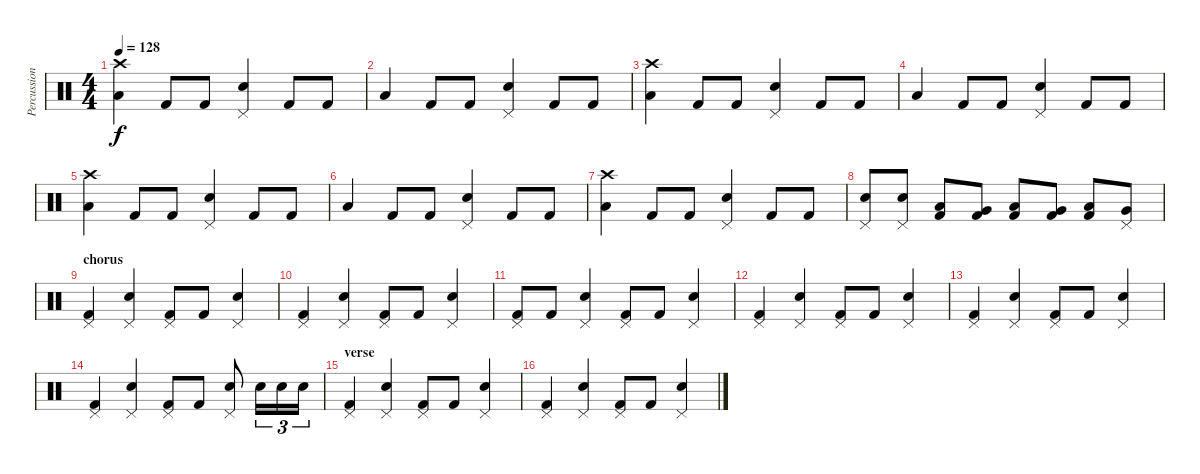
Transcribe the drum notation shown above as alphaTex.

\track ("Percussion" "Percussion") {instrument percussion}
\staff {score}
\articulation defaults
\ts (4 4)
\tempo 128
\clef neutral
\ks c
("Crash high (hit)" "Low Tom (hit)").4{dy f} "Kick (hit) 2".8 "Kick (hit) 2".8 ("Pedal Hi-Hat (hit)" "Electric Snare (hit)").4 "Kick (hit) 2".8 "Kick (hit) 2".8 |
"Low Tom (hit)".4 "Kick (hit) 2".8 "Kick (hit) 2".8 ("Pedal Hi-Hat (hit)" "Electric Snare (hit)").4 "Kick (hit) 2".8 "Kick (hit) 2".8 |
("Crash high (hit)" "Low Tom (hit)").4 "Kick (hit) 2".8 "Kick (hit) 2".8 ("Pedal Hi-Hat (hit)" "Electric Snare (hit)").4 "Kick (hit) 2".8 "Kick (hit) 2".8 |
"Low Tom (hit)".4 "Kick (hit) 2".8 "Kick (hit) 2".8 ("Pedal Hi-Hat (hit)" "Electric Snare (hit)").4 "Kick (hit) 2".8 "Kick (hit) 2".8 |
("Crash high (hit)" "Low Tom (hit)").4 "Kick (hit) 2".8 "Kick (hit) 2".8 ("Pedal Hi-Hat (hit)" "Electric Snare (hit)").4 "Kick (hit) 2".8 "Kick (hit) 2".8 |
"Low Tom (hit)".4 "Kick (hit) 2".8 "Kick (hit) 2".8 ("Pedal Hi-Hat (hit)" "Electric Snare (hit)").4 "Kick (hit) 2".8 "Kick (hit) 2".8 |
("Crash high (hit)" "Low Tom (hit)").4 "Kick (hit) 2".8 "Kick (hit) 2".8 ("Pedal Hi-Hat (hit)" "Electric Snare (hit)").4 "Kick (hit) 2".8 "Kick (hit) 2".8 |
("Pedal Hi-Hat (hit)" "Electric Snare (hit)").8 ("Pedal Hi-Hat (hit)" "Electric Snare (hit)").8 ("Low Tom (hit)" "Kick (hit) 2").8 ("Very Low Tom (hit)" "Kick (hit) 2").8 ("Low Floor Tom (hit)" "Kick (hit) 2").8 ("Very Low Tom (hit)" "Kick (hit) 2").8 ("Low Tom (hit)" "Kick (hit) 2").8 ("Pedal Hi-Hat (hit)" "Very Low Tom (hit)").8 |
\section ("" "chorus")
("Pedal Hi-Hat (hit)" "Kick (hit) 2").4 ("Pedal Hi-Hat (hit)" "Electric Snare (hit)").4 ("Pedal Hi-Hat (hit)" "Kick (hit) 2").8 "Kick (hit) 2".8 ("Pedal Hi-Hat (hit)" "Electric Snare (hit)").4 |
("Pedal Hi-Hat (hit)" "Kick (hit) 2").4 ("Pedal Hi-Hat (hit)" "Electric Snare (hit)").4 ("Pedal Hi-Hat (hit)" "Kick (hit) 2").8 "Kick (hit) 2".8 ("Pedal Hi-Hat (hit)" "Electric Snare (hit)").4 |
("Pedal Hi-Hat (hit)" "Kick (hit) 2").8 "Kick (hit) 2".8 ("Pedal Hi-Hat (hit)" "Electric Snare (hit)").4 ("Pedal Hi-Hat (hit)" "Kick (hit) 2").8 "Kick (hit) 2".8 ("Pedal Hi-Hat (hit)" "Electric Snare (hit)").4 |
("Pedal Hi-Hat (hit)" "Kick (hit) 2").4 ("Pedal Hi-Hat (hit)" "Electric Snare (hit)").4 ("Pedal Hi-Hat (hit)" "Kick (hit) 2").8 "Kick (hit) 2".8 ("Pedal Hi-Hat (hit)" "Electric Snare (hit)").4 |
("Pedal Hi-Hat (hit)" "Kick (hit) 2").4 ("Pedal Hi-Hat (hit)" "Electric Snare (hit)").4 ("Pedal Hi-Hat (hit)" "Kick (hit) 2").8 "Kick (hit) 2".8 ("Pedal Hi-Hat (hit)" "Electric Snare (hit)").4 |
("Pedal Hi-Hat (hit)" "Kick (hit) 2").4 ("Pedal Hi-Hat (hit)" "Electric Snare (hit)").4 ("Pedal Hi-Hat (hit)" "Kick (hit) 2").8 "Kick (hit) 2".8 ("Pedal Hi-Hat (hit)" "Electric Snare (hit)").8 "Electric Snare (hit)".16{tu (3 2)} "Electric Snare (hit)".16{tu (3 2)} "Electric Snare (hit)".16{tu (3 2)} |
\section ("" "verse")
("Pedal Hi-Hat (hit)" "Kick (hit) 2").4 ("Pedal Hi-Hat (hit)" "Electric Snare (hit)").4 ("Pedal Hi-Hat (hit)" "Kick (hit) 2").8 "Kick (hit) 2".8 ("Pedal Hi-Hat (hit)" "Electric Snare (hit)").4 |
("Pedal Hi-Hat (hit)" "Kick (hit) 2").4 ("Pedal Hi-Hat (hit)" "Electric Snare (hit)").4 ("Pedal Hi-Hat (hit)" "Kick (hit) 2").8 "Kick (hit) 2".8 ("Pedal Hi-Hat (hit)" "Electric Snare (hit)").4
